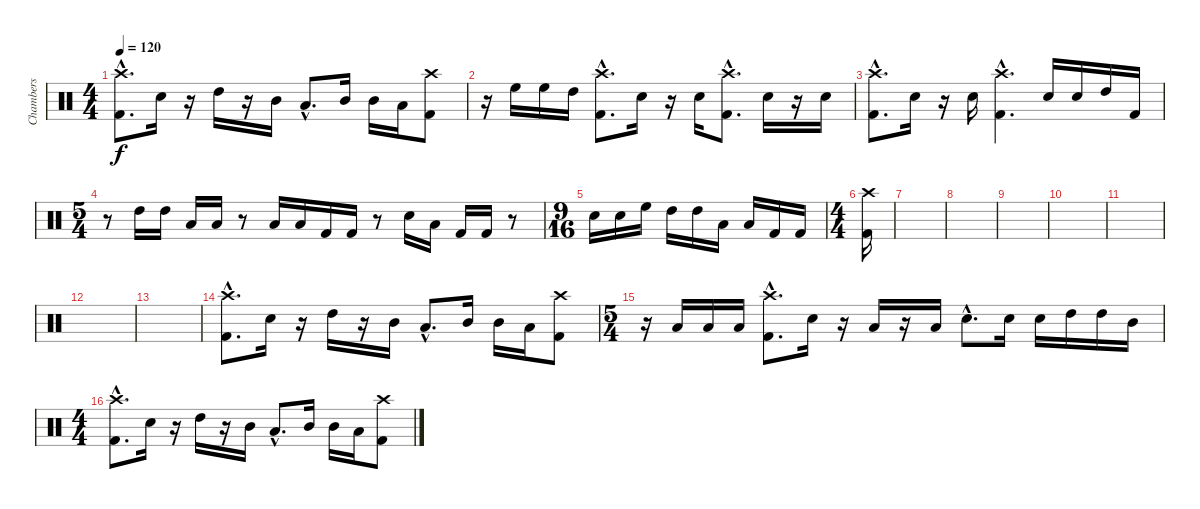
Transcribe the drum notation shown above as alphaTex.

\track ("Chambers" "Chambers") {instrument percussion}
\staff {score}
\articulation defaults
\ts (4 4)
\tempo 120
\clef neutral
\ks c
("Crash high (hit)"{hac} "Kick (hit) 2"{hac}).8{d dy f} "Electric Snare (hit)".16 r.16 "High Tom (hit)".16 r.16 "Mid Tom (hit)".16 "Low Tom (hit)"{hac}.8{d} "Mid Tom (hit)".16 "Mid Tom (hit)".16 "Low Tom (hit)".16 ("Crash high (hit)" "Kick (hit) 2").8 |
r.16 "High Floor Tom (hit)".16 "High Floor Tom (hit)".16 "High Tom (hit)".16 ("Crash high (hit)"{hac} "Kick (hit) 2"{hac}).8{d} "Electric Snare (hit)".16 r.16 "Electric Snare (hit)".16 ("Crash high (hit)"{hac} "Kick (hit) 2"{hac}).8{d} "Electric Snare (hit)".16 r.16 "Electric Snare (hit)".16 |
("Crash high (hit)"{hac} "Kick (hit) 2"{hac}).8{d} "Electric Snare (hit)".16 r.16 "Electric Snare (hit)".16 ("Crash high (hit)"{hac} "Kick (hit) 2"{hac}).4{d} "Electric Snare (hit)".16 "Electric Snare (hit)".16 "High Tom (hit)".16 "Kick (hit) 2".16 |
\ts (5 4)
r.8 "High Tom (hit)".16 "High Tom (hit)".16 "Low Tom (hit)".16 "Low Tom (hit)".16 r.8 "Low Tom (hit)".16 "Low Tom (hit)".16 "Kick (hit) 2".16 "Kick (hit) 2".16 r.8 "Electric Snare (hit)".16 "Low Tom (hit)".16 "Kick (hit) 2".16 "Kick (hit) 2".16 r.8 |
\ts (9 16)
"Electric Snare (hit)".16 "Electric Snare (hit)".16 "High Floor Tom (hit)".16 "High Tom (hit)".16 "High Tom (hit)".16 "Low Tom (hit)".16 "Low Tom (hit)".16 "Kick (hit) 2".16 "Kick (hit) 2".16 |
\ts (4 4)
("Crash high (hit)" "Kick (hit) 2").16 |
|
|
|
|
|
|
|
("Crash high (hit)"{hac} "Kick (hit) 2"{hac}).8{d} "Electric Snare (hit)".16 r.16 "High Tom (hit)".16 r.16 "Mid Tom (hit)".16 "Low Tom (hit)"{hac}.8{d} "Mid Tom (hit)".16 "Mid Tom (hit)".16 "Low Tom (hit)".16 ("Crash high (hit)" "Kick (hit) 2").8 |
\ts (5 4)
r.16 "Low Tom (hit)".16 "Low Tom (hit)".16 "Low Tom (hit)".16 ("Crash high (hit)"{hac} "Kick (hit) 2"{hac}).8{d} "Electric Snare (hit)".16 r.16 "Low Tom (hit)".16 r.16 "Low Tom (hit)".16 "Electric Snare (hit)"{hac}.8{d} "Electric Snare (hit)".16 "Electric Snare (hit)".16 "High Tom (hit)".16 "High Tom (hit)".16 "Mid Tom (hit)".16 |
\ts (4 4)
("Crash high (hit)"{hac} "Kick (hit) 2"{hac}).8{d} "Electric Snare (hit)".16 r.16 "High Tom (hit)".16 r.16 "Mid Tom (hit)".16 "Low Tom (hit)"{hac}.8{d} "Mid Tom (hit)".16 "Mid Tom (hit)".16 "Low Tom (hit)".16 ("Crash high (hit)" "Kick (hit) 2").8
